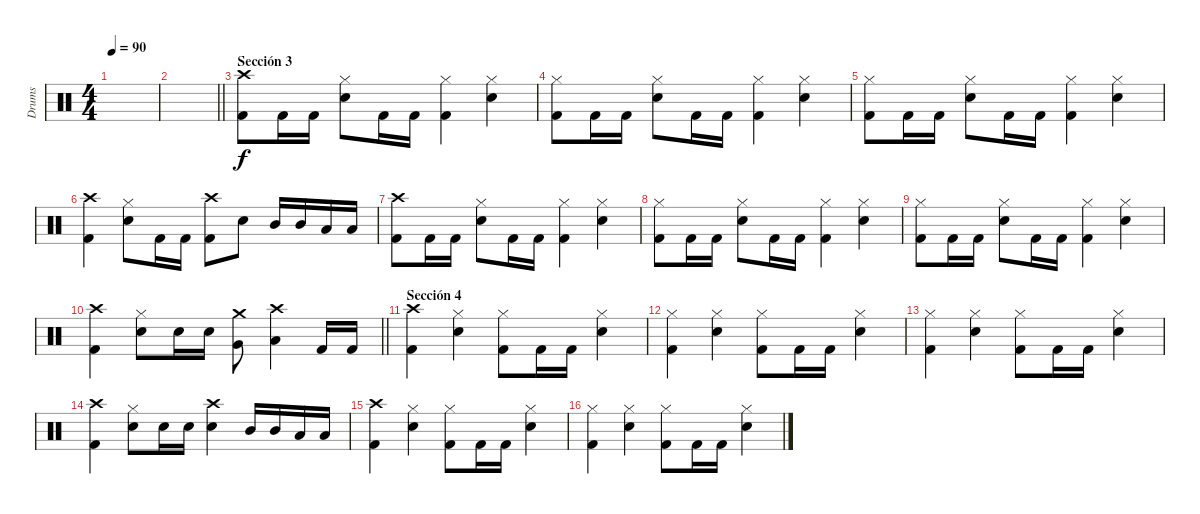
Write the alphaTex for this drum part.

\track ("Drums" "Drums") {instrument percussion}
\staff {score}
\articulation defaults
\ts (4 4)
\tempo 90
\clef neutral
\ks c
|
\barLineRight lightlight
|
\section ("" "Sección 3")
("Crash high (hit)" "Kick (hit) 2").8 "Kick (hit) 2".16 "Kick (hit) 2".16 ("Hi-Hat (closed)" "Snare (hit) 2").8 "Kick (hit) 2".16 "Kick (hit) 2".16 ("Hi-Hat (closed)" "Kick (hit) 2").4 ("Hi-Hat (closed)" "Snare (hit) 2").4 |
("Hi-Hat (closed)" "Kick (hit) 2").8 "Kick (hit) 2".16 "Kick (hit) 2".16 ("Hi-Hat (closed)" "Snare (hit) 2").8 "Kick (hit) 2".16 "Kick (hit) 2".16 ("Hi-Hat (closed)" "Kick (hit) 2").4 ("Hi-Hat (closed)" "Snare (hit) 2").4 |
("Hi-Hat (closed)" "Kick (hit) 2").8 "Kick (hit) 2".16 "Kick (hit) 2".16 ("Hi-Hat (closed)" "Snare (hit) 2").8 "Kick (hit) 2".16 "Kick (hit) 2".16 ("Hi-Hat (closed)" "Kick (hit) 2").4 ("Hi-Hat (closed)" "Snare (hit) 2").4 |
("Crash high (hit)" "Kick (hit) 2").4 ("Hi-Hat (closed)" "Snare (hit) 2").8 "Kick (hit) 2".16 "Kick (hit) 2".16 ("Crash high (hit)" "Kick (hit) 2").8 "Snare (hit) 2".8 "Mid Tom (hit)".16 "Mid Tom (hit)".16 "Low Tom (hit)".16 "Low Tom (hit)".16 |
("Crash high (hit)" "Kick (hit) 2").8 "Kick (hit) 2".16 "Kick (hit) 2".16 ("Hi-Hat (closed)" "Snare (hit) 2").8 "Kick (hit) 2".16 "Kick (hit) 2".16 ("Hi-Hat (closed)" "Kick (hit) 2").4 ("Hi-Hat (closed)" "Snare (hit) 2").4 |
("Hi-Hat (closed)" "Kick (hit) 2").8 "Kick (hit) 2".16 "Kick (hit) 2".16 ("Hi-Hat (closed)" "Snare (hit) 2").8 "Kick (hit) 2".16 "Kick (hit) 2".16 ("Hi-Hat (closed)" "Kick (hit) 2").4 ("Hi-Hat (closed)" "Snare (hit) 2").4 |
("Hi-Hat (closed)" "Kick (hit) 2").8 "Kick (hit) 2".16 "Kick (hit) 2".16 ("Hi-Hat (closed)" "Snare (hit) 2").8 "Kick (hit) 2".16 "Kick (hit) 2".16 ("Hi-Hat (closed)" "Kick (hit) 2").4 ("Hi-Hat (closed)" "Snare (hit) 2").4 |
\barLineRight lightlight
("Crash high (hit)" "Kick (hit) 2").4 ("Hi-Hat (closed)" "Snare (hit) 2").8 "Snare (hit) 2".16 "Snare (hit) 2".16 ("Crash medium (hit)" "Very Low Tom (hit)").8 ("Crash high (hit)" "Low Floor Tom (hit)").4 "Kick (hit) 2".16 "Kick (hit) 2".16 |
\section ("" "Sección 4")
("Crash high (hit)" "Kick (hit) 2").4 ("Hi-Hat (closed)" "Snare (hit) 2").4 ("Hi-Hat (closed)" "Kick (hit) 2").8 "Kick (hit) 2".16 "Kick (hit) 2".16 ("Hi-Hat (closed)" "Snare (hit) 2").4 |
("Hi-Hat (closed)" "Kick (hit) 2").4 ("Hi-Hat (closed)" "Snare (hit) 2").4 ("Hi-Hat (closed)" "Kick (hit) 2").8 "Kick (hit) 2".16 "Kick (hit) 2".16 ("Hi-Hat (closed)" "Snare (hit) 2").4 |
("Hi-Hat (closed)" "Kick (hit) 2").4 ("Hi-Hat (closed)" "Snare (hit) 2").4 ("Hi-Hat (closed)" "Kick (hit) 2").8 "Kick (hit) 2".16 "Kick (hit) 2".16 ("Hi-Hat (closed)" "Snare (hit) 2").4 |
("Crash high (hit)" "Kick (hit) 2").4 ("Hi-Hat (closed)" "Snare (hit) 2").8 "Snare (hit) 2".16 "Snare (hit) 2".16 ("Crash high (hit)" "Snare (hit) 2").4 "Mid Tom (hit)".16 "Mid Tom (hit)".16 "Low Tom (hit)".16 "Low Tom (hit)".16 |
("Crash high (hit)" "Kick (hit) 2").4 ("Hi-Hat (closed)" "Snare (hit) 2").4 ("Hi-Hat (closed)" "Kick (hit) 2").8 "Kick (hit) 2".16 "Kick (hit) 2".16 ("Hi-Hat (closed)" "Snare (hit) 2").4 |
("Hi-Hat (closed)" "Kick (hit) 2").4 ("Hi-Hat (closed)" "Snare (hit) 2").4 ("Hi-Hat (closed)" "Kick (hit) 2").8 "Kick (hit) 2".16 "Kick (hit) 2".16 ("Hi-Hat (closed)" "Snare (hit) 2").4
